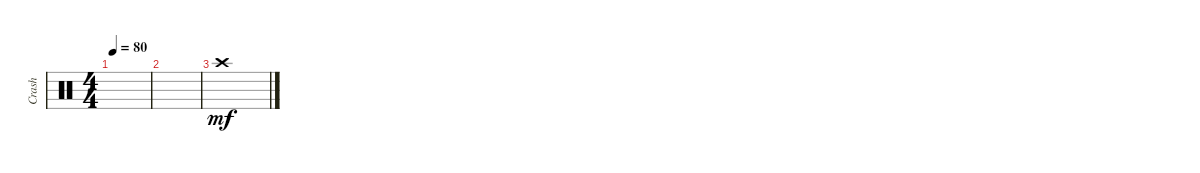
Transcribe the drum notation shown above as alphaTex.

\track ("Crash" "Crash") {instrument percussion}
\staff {score}
\articulation defaults
\ts (4 4)
\tempo 80
\clef neutral
\ks c
|
|
"Crash high (hit)".1{dy mf}
